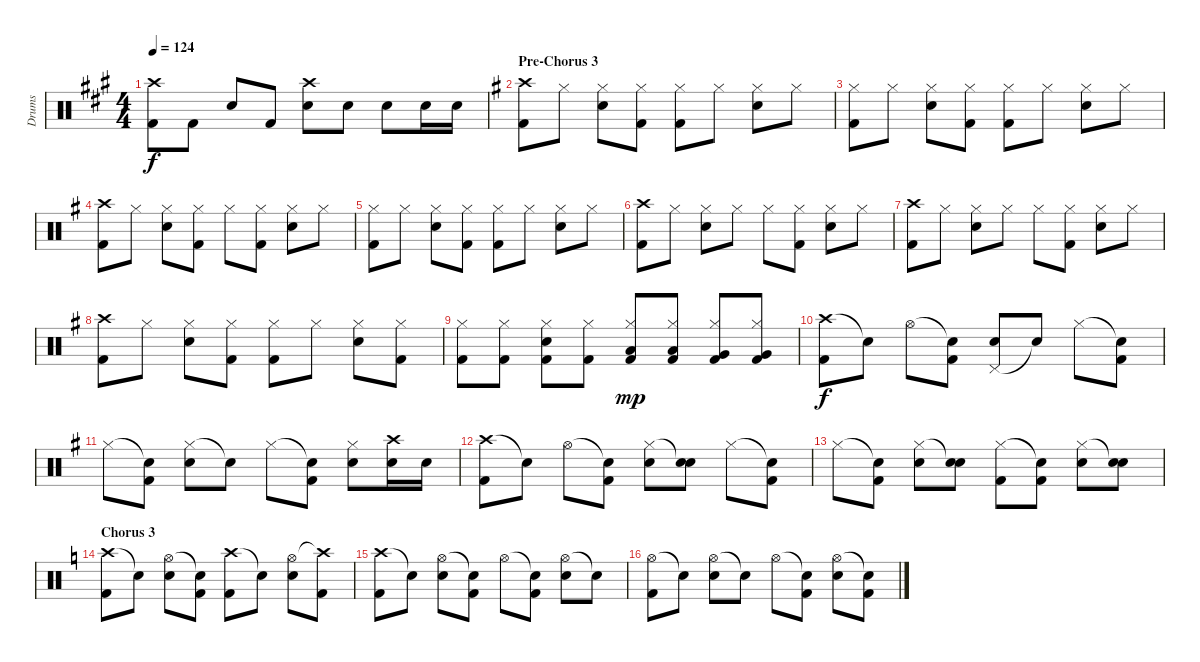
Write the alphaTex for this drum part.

\track ("Drums" "Drums") {instrument percussion}
\staff {score}
\articulation defaults
\ts (4 4)
\tempo 124
\clef neutral
\ks a
("Crash high (hit)" "Kick (hit) 2").8{dy f} "Kick (hit) 2".8 "Electric Snare (hit)".8 "Kick (hit) 2".8 ("Crash high (hit)" "Electric Snare (hit)").8 "Electric Snare (hit)".8 "Electric Snare (hit)".8 "Electric Snare (hit)".16 "Electric Snare (hit)".16 |
\section ("" "Pre-Chorus 3")
\ks g
("Crash high (hit)" "Kick (hit) 2").8 "Hi-Hat (closed)".8 ("Hi-Hat (closed)" "Electric Snare (hit)").8 ("Hi-Hat (closed)" "Kick (hit) 2").8 ("Hi-Hat (closed)" "Kick (hit) 2").8 "Hi-Hat (closed)".8 ("Hi-Hat (closed)" "Electric Snare (hit)").8 "Hi-Hat (closed)".8 |
("Hi-Hat (closed)" "Kick (hit) 2").8 "Hi-Hat (closed)".8 ("Hi-Hat (closed)" "Electric Snare (hit)").8 ("Hi-Hat (closed)" "Kick (hit) 2").8 ("Hi-Hat (closed)" "Kick (hit) 2").8 "Hi-Hat (closed)".8 ("Hi-Hat (closed)" "Electric Snare (hit)").8 "Hi-Hat (closed)".8 |
("Crash high (hit)" "Kick (hit) 2").8 "Hi-Hat (closed)".8 ("Hi-Hat (closed)" "Electric Snare (hit)").8 ("Hi-Hat (closed)" "Kick (hit) 2").8 "Hi-Hat (closed)".8 ("Hi-Hat (closed)" "Kick (hit) 2").8 ("Hi-Hat (closed)" "Electric Snare (hit)").8 "Hi-Hat (closed)".8 |
("Hi-Hat (closed)" "Kick (hit) 2").8 "Hi-Hat (closed)".8 ("Hi-Hat (closed)" "Electric Snare (hit)").8 ("Hi-Hat (closed)" "Kick (hit) 2").8 ("Hi-Hat (closed)" "Kick (hit) 2").8 "Hi-Hat (closed)".8 ("Hi-Hat (closed)" "Electric Snare (hit)").8 "Hi-Hat (closed)".8 |
("Crash high (hit)" "Kick (hit) 2").8 "Hi-Hat (closed)".8 ("Hi-Hat (closed)" "Electric Snare (hit)").8 "Hi-Hat (closed)".8 "Hi-Hat (closed)".8 ("Hi-Hat (closed)" "Kick (hit) 2").8 ("Hi-Hat (closed)" "Electric Snare (hit)").8 "Hi-Hat (closed)".8 |
("Crash high (hit)" "Kick (hit) 2").8 "Hi-Hat (closed)".8 ("Hi-Hat (closed)" "Electric Snare (hit)").8 "Hi-Hat (closed)".8 "Hi-Hat (closed)".8 ("Hi-Hat (closed)" "Kick (hit) 2").8 ("Hi-Hat (closed)" "Electric Snare (hit)").8 "Hi-Hat (closed)".8 |
("Crash high (hit)" "Kick (hit) 2").8 "Hi-Hat (closed)".8 ("Hi-Hat (closed)" "Electric Snare (hit)").8 ("Hi-Hat (closed)" "Kick (hit) 2").8 ("Hi-Hat (closed)" "Kick (hit) 2").8 "Hi-Hat (closed)".8 ("Hi-Hat (closed)" "Electric Snare (hit)").8 ("Hi-Hat (closed)" "Kick (hit) 2").8 |
("Hi-Hat (closed)" "Kick (hit) 2").8 ("Hi-Hat (closed)" "Kick (hit) 2").8 ("Hi-Hat (closed)" "Electric Snare (hit)" "Kick (hit) 2").8 ("Hi-Hat (closed)" "Kick (hit) 2").8 ("Hi-Hat (closed)" "Low Tom (hit)" "Kick (hit) 2").8{dy mp} ("Hi-Hat (closed)" "Low Tom (hit)" "Kick (hit) 2").8 ("Hi-Hat (closed)" "Very Low Tom (hit)" "Kick (hit) 2").8 ("Hi-Hat (closed)" "Very Low Tom (hit)" "Kick (hit) 2").8 |
("Crash high (hit)" "Kick (hit) 2").8{dy f} "Snare (hit)"{t}.8 "Hi-Hat (open)".8 ("Snare (hit)"{t} "Kick (hit) 2").8 ("Pedal Hi-Hat (hit)" "Electric Snare (hit)").8 "Snare (hit)"{t}.8 "Hi-Hat (closed)".8 ("Snare (hit)"{t} "Kick (hit) 2").8 |
"Hi-Hat (closed)".8 ("Snare (hit)"{t} "Kick (hit) 2").8 ("Hi-Hat (closed)" "Electric Snare (hit)").8 "Snare (hit)"{t}.8 "Hi-Hat (closed)".8 ("Snare (hit)"{t} "Kick (hit) 2").8 ("Hi-Hat (closed)" "Electric Snare (hit)").8 ("Crash high (hit)" "Electric Snare (hit)").16 "Electric Snare (hit)".16 |
("Crash high (hit)" "Kick (hit) 2").8 "Snare (hit)"{t}.8 "Hi-Hat (open)".8 ("Snare (hit)"{t} "Kick (hit) 2").8 ("Hi-Hat (closed)" "Electric Snare (hit)").8 ("Snare (hit)"{t} "Electric Snare (hit)").8 "Hi-Hat (closed)".8 ("Snare (hit)"{t} "Kick (hit) 2").8 |
"Hi-Hat (closed)".8 ("Snare (hit)"{t} "Kick (hit) 2").8 ("Hi-Hat (closed)" "Electric Snare (hit)").8 ("Snare (hit)"{t} "Electric Snare (hit)").8 ("Hi-Hat (closed)" "Kick (hit) 2").8 ("Snare (hit)"{t} "Kick (hit) 2").8 ("Hi-Hat (closed)" "Electric Snare (hit)").8 ("Snare (hit)"{t} "Electric Snare (hit)").8 |
\section ("" "Chorus 3")
\ks c
("Crash high (hit)" "Kick (hit) 2").8 "Snare (hit)"{t}.8 ("Hi-Hat (open)" "Electric Snare (hit)").8 ("Snare (hit)"{t} "Kick (hit) 2").8 ("Crash high (hit)" "Kick (hit) 2").8 "Snare (hit)"{t}.8 ("Hi-Hat (open)" "Electric Snare (hit)").8 ("Crash high (hit)"{t} "Kick (hit) 2").8 |
("Crash high (hit)" "Kick (hit) 2").8 "Snare (hit)"{t}.8 ("Hi-Hat (open)" "Electric Snare (hit)").8 ("Snare (hit)"{t} "Kick (hit) 2").8 "Hi-Hat (open)".8 ("Snare (hit)"{t} "Kick (hit) 2").8 ("Hi-Hat (open)" "Electric Snare (hit)").8 "Snare (hit)"{t}.8 |
("Hi-Hat (open)" "Kick (hit) 2").8 "Snare (hit)"{t}.8 ("Hi-Hat (open)" "Electric Snare (hit)").8 "Snare (hit)"{t}.8 "Hi-Hat (open)".8 ("Snare (hit)"{t} "Kick (hit) 2").8 ("Hi-Hat (open)" "Electric Snare (hit)").8 ("Snare (hit)"{t} "Kick (hit) 2").8
